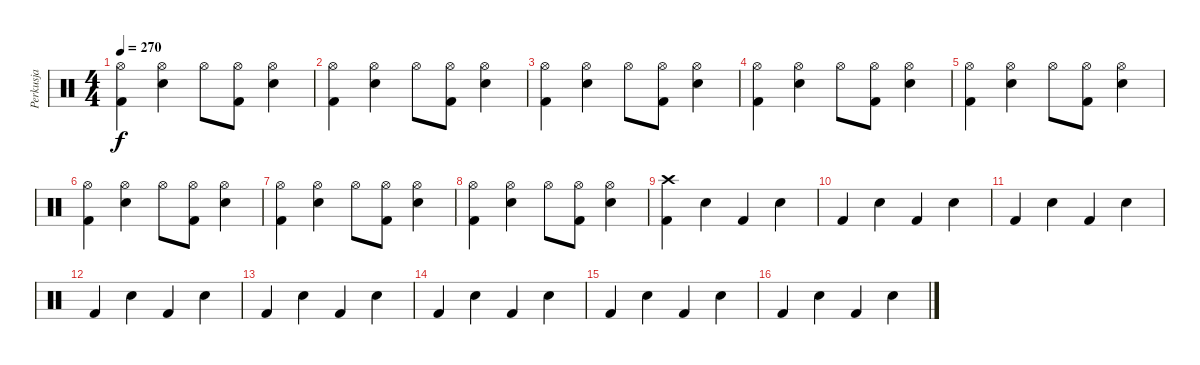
\track ("Perkusja" "Perkusja") {instrument percussion}
\staff {score}
\articulation defaults
\ts (4 4)
\tempo 270
\clef neutral
\ks c
("Hi-Hat (open)" "Kick (hit) 2").4{dy f} ("Hi-Hat (open)" "Electric Snare (hit)").4 "Hi-Hat (open)".8 ("Hi-Hat (open)" "Kick (hit) 2").8 ("Hi-Hat (open)" "Electric Snare (hit)").4 |
("Hi-Hat (open)" "Kick (hit) 2").4 ("Hi-Hat (open)" "Electric Snare (hit)").4 "Hi-Hat (open)".8 ("Hi-Hat (open)" "Kick (hit) 2").8 ("Hi-Hat (open)" "Electric Snare (hit)").4 |
("Hi-Hat (open)" "Kick (hit) 2").4 ("Hi-Hat (open)" "Electric Snare (hit)").4 "Hi-Hat (open)".8 ("Hi-Hat (open)" "Kick (hit) 2").8 ("Hi-Hat (open)" "Electric Snare (hit)").4 |
("Hi-Hat (open)" "Kick (hit) 2").4 ("Hi-Hat (open)" "Electric Snare (hit)").4 "Hi-Hat (open)".8 ("Hi-Hat (open)" "Kick (hit) 2").8 ("Hi-Hat (open)" "Electric Snare (hit)").4 |
("Hi-Hat (open)" "Kick (hit) 2").4 ("Hi-Hat (open)" "Electric Snare (hit)").4 "Hi-Hat (open)".8 ("Hi-Hat (open)" "Kick (hit) 2").8 ("Hi-Hat (open)" "Electric Snare (hit)").4 |
("Hi-Hat (open)" "Kick (hit) 2").4 ("Hi-Hat (open)" "Electric Snare (hit)").4 "Hi-Hat (open)".8 ("Hi-Hat (open)" "Kick (hit) 2").8 ("Hi-Hat (open)" "Electric Snare (hit)").4 |
("Hi-Hat (open)" "Kick (hit) 2").4 ("Hi-Hat (open)" "Electric Snare (hit)").4 "Hi-Hat (open)".8 ("Hi-Hat (open)" "Kick (hit) 2").8 ("Hi-Hat (open)" "Electric Snare (hit)").4 |
("Hi-Hat (open)" "Kick (hit) 2").4 ("Hi-Hat (open)" "Electric Snare (hit)").4 "Hi-Hat (open)".8 ("Hi-Hat (open)" "Kick (hit) 2").8 ("Hi-Hat (open)" "Electric Snare (hit)").4 |
("Crash high (hit)" "Kick (hit) 2").4 "Electric Snare (hit)".4 "Kick (hit) 2".4 "Electric Snare (hit)".4 |
"Kick (hit) 2".4 "Electric Snare (hit)".4 "Kick (hit) 2".4 "Electric Snare (hit)".4 |
"Kick (hit) 2".4 "Electric Snare (hit)".4 "Kick (hit) 2".4 "Electric Snare (hit)".4 |
"Kick (hit) 2".4 "Electric Snare (hit)".4 "Kick (hit) 2".4 "Electric Snare (hit)".4 |
"Kick (hit) 2".4 "Electric Snare (hit)".4 "Kick (hit) 2".4 "Electric Snare (hit)".4 |
"Kick (hit) 2".4 "Electric Snare (hit)".4 "Kick (hit) 2".4 "Electric Snare (hit)".4 |
"Kick (hit) 2".4 "Electric Snare (hit)".4 "Kick (hit) 2".4 "Electric Snare (hit)".4 |
"Kick (hit) 2".4 "Electric Snare (hit)".4 "Kick (hit) 2".4 "Electric Snare (hit)".4
